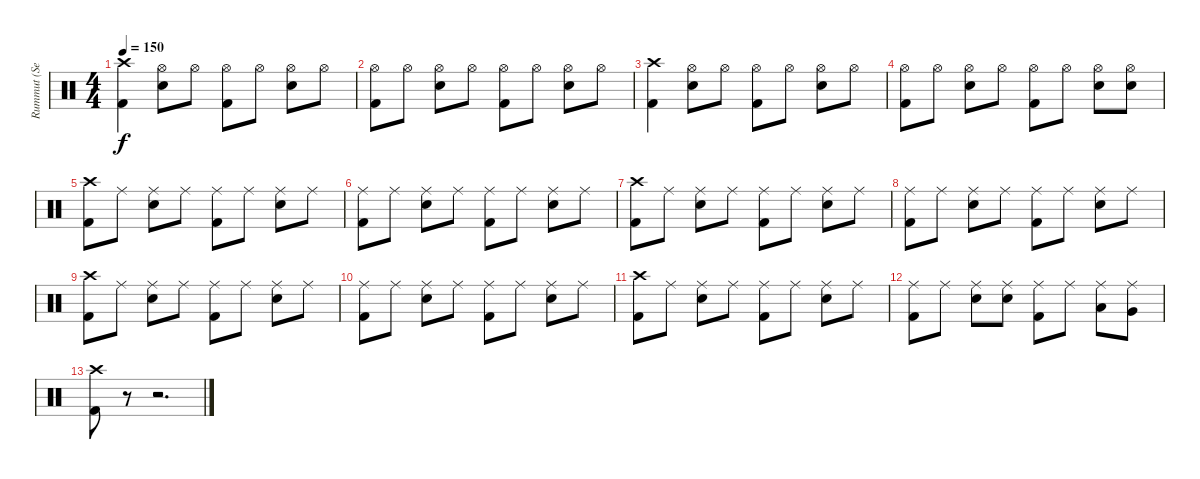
\track ("Rummut (Seppo Pohjolainen)" "Rummut (Se") {instrument percussion}
\staff {score}
\articulation defaults
\ts (4 4)
\tempo 150
\clef neutral
\ks c
("Crash high (hit)" "Kick (hit) 2").4{dy f} ("Hi-Hat (open)" "Snare (hit) 2").8 "Hi-Hat (open)".8 ("Hi-Hat (open)" "Kick (hit) 2").8 "Hi-Hat (open)".8 ("Hi-Hat (open)" "Snare (hit) 2").8 "Hi-Hat (open)".8 |
("Hi-Hat (open)" "Kick (hit) 2").8 "Hi-Hat (open)".8 ("Hi-Hat (open)" "Snare (hit) 2").8 "Hi-Hat (open)".8 ("Hi-Hat (open)" "Kick (hit) 2").8 "Hi-Hat (open)".8 ("Hi-Hat (open)" "Snare (hit) 2").8 "Hi-Hat (open)".8 |
("Crash high (hit)" "Kick (hit) 2").4 ("Hi-Hat (open)" "Snare (hit) 2").8 "Hi-Hat (open)".8 ("Hi-Hat (open)" "Kick (hit) 2").8 "Hi-Hat (open)".8 ("Hi-Hat (open)" "Snare (hit) 2").8 "Hi-Hat (open)".8 |
("Hi-Hat (open)" "Kick (hit) 2").8 "Hi-Hat (open)".8 ("Hi-Hat (open)" "Snare (hit) 2").8 "Hi-Hat (open)".8 ("Hi-Hat (open)" "Kick (hit) 2").8 "Hi-Hat (open)".8 ("Hi-Hat (open)" "Snare (hit) 2").8 ("Hi-Hat (open)" "Snare (hit) 2").8 |
("Crash high (hit)" "Kick (hit) 2").8 "Ride (middle)".8 ("Ride (middle)" "Snare (hit) 2").8 "Ride (middle)".8 ("Ride (middle)" "Kick (hit) 2").8 "Ride (middle)".8 ("Ride (middle)" "Snare (hit) 2").8 "Ride (middle)".8 |
("Ride (middle)" "Kick (hit) 2").8 "Ride (middle)".8 ("Ride (middle)" "Snare (hit) 2").8 "Ride (middle)".8 ("Ride (middle)" "Kick (hit) 2").8 "Ride (middle)".8 ("Ride (middle)" "Snare (hit) 2").8 "Ride (middle)".8 |
("Crash high (hit)" "Kick (hit) 2").8 "Ride (middle)".8 ("Ride (middle)" "Snare (hit) 2").8 "Ride (middle)".8 ("Ride (middle)" "Kick (hit) 2").8 "Ride (middle)".8 ("Ride (middle)" "Snare (hit) 2").8 "Ride (middle)".8 |
("Ride (middle)" "Kick (hit) 2").8 "Ride (middle)".8 ("Ride (middle)" "Snare (hit) 2").8 "Ride (middle)".8 ("Ride (middle)" "Kick (hit) 2").8 "Ride (middle)".8 ("Ride (middle)" "Snare (hit) 2").8 "Ride (middle)".8 |
("Crash high (hit)" "Kick (hit) 2").8 "Ride (middle)".8 ("Ride (middle)" "Snare (hit) 2").8 "Ride (middle)".8 ("Ride (middle)" "Kick (hit) 2").8 "Ride (middle)".8 ("Ride (middle)" "Snare (hit) 2").8 "Ride (middle)".8 |
("Ride (middle)" "Kick (hit) 2").8 "Ride (middle)".8 ("Ride (middle)" "Snare (hit) 2").8 "Ride (middle)".8 ("Ride (middle)" "Kick (hit) 2").8 "Ride (middle)".8 ("Ride (middle)" "Snare (hit) 2").8 "Ride (middle)".8 |
("Crash high (hit)" "Kick (hit) 2").8 "Ride (middle)".8 ("Ride (middle)" "Snare (hit) 2").8 "Ride (middle)".8 ("Ride (middle)" "Kick (hit) 2").8 "Ride (middle)".8 ("Ride (middle)" "Snare (hit) 2").8 "Ride (middle)".8 |
("Ride (middle)" "Kick (hit) 2").8 "Ride (middle)".8 ("Ride (middle)" "Snare (hit) 2").8 ("Ride (middle)" "Snare (hit) 2").8 ("Ride (middle)" "Kick (hit) 2").8 "Ride (middle)".8 ("Ride (middle)" "Low Tom (hit)").8 ("Ride (middle)" "Very Low Tom (hit)").8 |
("Crash high (hit)" "Kick (hit) 2").8 r.8 r.2{d}
